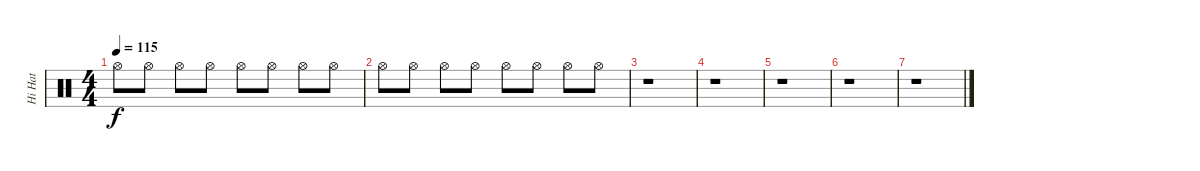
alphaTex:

\track ("Hi Hat" "Hi Hat") {instrument percussion}
\staff {score}
\articulation defaults
\ts (4 4)
\tempo 115
\clef neutral
\ks c "Hi-Hat (open)".8{dy f} "Hi-Hat (open)".8 "Hi-Hat (open)".8 "Hi-Hat (open)".8 "Hi-Hat (open)".8 "Hi-Hat (open)".8 "Hi-Hat (open)".8 "Hi-Hat (open)".8
|
"Hi-Hat (open)".8 "Hi-Hat (open)".8 "Hi-Hat (open)".8 "Hi-Hat (open)".8 "Hi-Hat (open)".8 "Hi-Hat (open)".8 "Hi-Hat (open)".8 "Hi-Hat (open)".8 |
r.1 |
r.1 |
r.1 |
r.1 |
r.1
